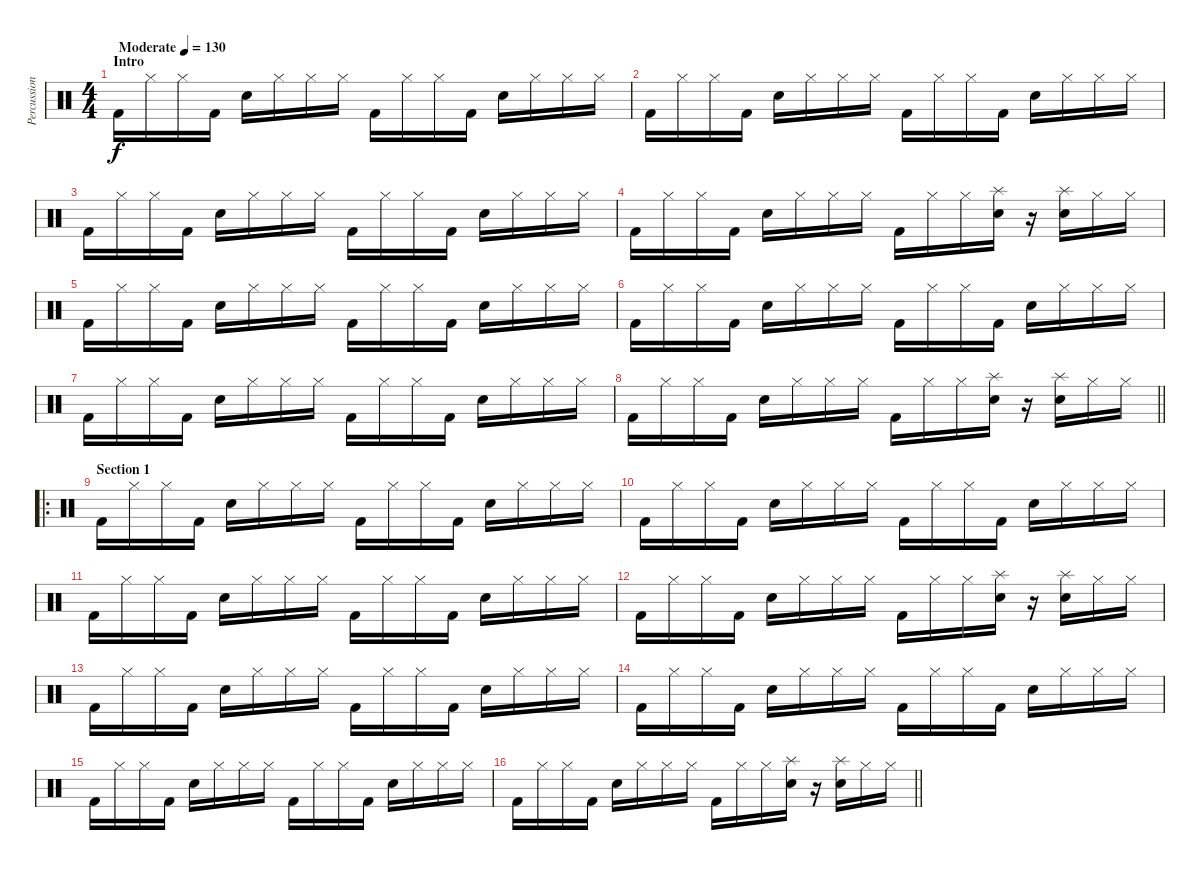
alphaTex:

\track ("Percussion" "Percussion") {instrument percussion}
\staff {score}
\articulation defaults
\ts (4 4)
\section ("" "Intro")
\tempo (130 "Moderate")
\clef neutral
\ks c "Kick (hit) 2".16{dy f} "Hi-Hat (closed)".16 "Hi-Hat (closed)".16 "Kick (hit) 2".16 "Snare (hit) 2".16 "Hi-Hat (closed)".16 "Hi-Hat (closed)".16 "Hi-Hat (closed)".16 "Kick (hit) 2".16 "Hi-Hat (closed)".16 "Hi-Hat (closed)".16 "Kick (hit) 2".16 "Snare (hit) 2".16 "Hi-Hat (closed)".16 "Hi-Hat (closed)".16 "Hi-Hat (closed)".16
|
"Kick (hit) 2".16 "Hi-Hat (closed)".16 "Hi-Hat (closed)".16 "Kick (hit) 2".16 "Snare (hit) 2".16 "Hi-Hat (closed)".16 "Hi-Hat (closed)".16 "Hi-Hat (closed)".16 "Kick (hit) 2".16 "Hi-Hat (closed)".16 "Hi-Hat (closed)".16 "Kick (hit) 2".16 "Snare (hit) 2".16 "Hi-Hat (closed)".16 "Hi-Hat (closed)".16 "Hi-Hat (closed)".16 |
"Kick (hit) 2".16 "Hi-Hat (closed)".16 "Hi-Hat (closed)".16 "Kick (hit) 2".16 "Snare (hit) 2".16 "Hi-Hat (closed)".16 "Hi-Hat (closed)".16 "Hi-Hat (closed)".16 "Kick (hit) 2".16 "Hi-Hat (closed)".16 "Hi-Hat (closed)".16 "Kick (hit) 2".16 "Snare (hit) 2".16 "Hi-Hat (closed)".16 "Hi-Hat (closed)".16 "Hi-Hat (closed)".16 |
"Kick (hit) 2".16 "Hi-Hat (closed)".16 "Hi-Hat (closed)".16 "Kick (hit) 2".16 "Snare (hit) 2".16 "Hi-Hat (closed)".16 "Hi-Hat (closed)".16 "Hi-Hat (closed)".16 "Kick (hit) 2".16 "Hi-Hat (closed)".16 "Hi-Hat (closed)".16 ("Splash (hit)" "Snare (hit) 2").16 r.16 ("Splash (hit)" "Snare (hit) 2").16 "Hi-Hat (closed)".16 "Hi-Hat (closed)".16 |
"Kick (hit) 2".16 "Hi-Hat (closed)".16 "Hi-Hat (closed)".16 "Kick (hit) 2".16 "Snare (hit) 2".16 "Hi-Hat (closed)".16 "Hi-Hat (closed)".16 "Hi-Hat (closed)".16 "Kick (hit) 2".16 "Hi-Hat (closed)".16 "Hi-Hat (closed)".16 "Kick (hit) 2".16 "Snare (hit) 2".16 "Hi-Hat (closed)".16 "Hi-Hat (closed)".16 "Hi-Hat (closed)".16 |
"Kick (hit) 2".16 "Hi-Hat (closed)".16 "Hi-Hat (closed)".16 "Kick (hit) 2".16 "Snare (hit) 2".16 "Hi-Hat (closed)".16 "Hi-Hat (closed)".16 "Hi-Hat (closed)".16 "Kick (hit) 2".16 "Hi-Hat (closed)".16 "Hi-Hat (closed)".16 "Kick (hit) 2".16 "Snare (hit) 2".16 "Hi-Hat (closed)".16 "Hi-Hat (closed)".16 "Hi-Hat (closed)".16 |
"Kick (hit) 2".16 "Hi-Hat (closed)".16 "Hi-Hat (closed)".16 "Kick (hit) 2".16 "Snare (hit) 2".16 "Hi-Hat (closed)".16 "Hi-Hat (closed)".16 "Hi-Hat (closed)".16 "Kick (hit) 2".16 "Hi-Hat (closed)".16 "Hi-Hat (closed)".16 "Kick (hit) 2".16 "Snare (hit) 2".16 "Hi-Hat (closed)".16 "Hi-Hat (closed)".16 "Hi-Hat (closed)".16 |
\barLineRight lightlight "Kick (hit) 2".16 "Hi-Hat (closed)".16 "Hi-Hat (closed)".16 "Kick (hit) 2".16 "Snare (hit) 2".16 "Hi-Hat (closed)".16 "Hi-Hat (closed)".16 "Hi-Hat (closed)".16 "Kick (hit) 2".16 "Hi-Hat (closed)".16 "Hi-Hat (closed)".16
("Splash (hit)" "Snare (hit) 2").16 r.16 ("Splash (hit)" "Snare (hit) 2").16 "Hi-Hat (closed)".16 "Hi-Hat (closed)".16 |
\ro
\section ("" "Section 1")
"Kick (hit) 2".16 "Hi-Hat (closed)".16 "Hi-Hat (closed)".16 "Kick (hit) 2".16 "Snare (hit) 2".16 "Hi-Hat (closed)".16 "Hi-Hat (closed)".16 "Hi-Hat (closed)".16 "Kick (hit) 2".16 "Hi-Hat (closed)".16 "Hi-Hat (closed)".16 "Kick (hit) 2".16 "Snare (hit) 2".16 "Hi-Hat (closed)".16 "Hi-Hat (closed)".16 "Hi-Hat (closed)".16 |
"Kick (hit) 2".16 "Hi-Hat (closed)".16 "Hi-Hat (closed)".16 "Kick (hit) 2".16 "Snare (hit) 2".16 "Hi-Hat (closed)".16 "Hi-Hat (closed)".16 "Hi-Hat (closed)".16 "Kick (hit) 2".16 "Hi-Hat (closed)".16 "Hi-Hat (closed)".16 "Kick (hit) 2".16 "Snare (hit) 2".16 "Hi-Hat (closed)".16 "Hi-Hat (closed)".16 "Hi-Hat (closed)".16 |
"Kick (hit) 2".16 "Hi-Hat (closed)".16 "Hi-Hat (closed)".16 "Kick (hit) 2".16 "Snare (hit) 2".16 "Hi-Hat (closed)".16 "Hi-Hat (closed)".16 "Hi-Hat (closed)".16 "Kick (hit) 2".16 "Hi-Hat (closed)".16 "Hi-Hat (closed)".16 "Kick (hit) 2".16 "Snare (hit) 2".16 "Hi-Hat (closed)".16 "Hi-Hat (closed)".16 "Hi-Hat (closed)".16 |
"Kick (hit) 2".16 "Hi-Hat (closed)".16 "Hi-Hat (closed)".16 "Kick (hit) 2".16 "Snare (hit) 2".16 "Hi-Hat (closed)".16 "Hi-Hat (closed)".16 "Hi-Hat (closed)".16 "Kick (hit) 2".16 "Hi-Hat (closed)".16 "Hi-Hat (closed)".16 ("Splash (hit)" "Snare (hit) 2").16 r.16 ("Splash (hit)" "Snare (hit) 2").16 "Hi-Hat (closed)".16 "Hi-Hat (closed)".16 |
"Kick (hit) 2".16 "Hi-Hat (closed)".16 "Hi-Hat (closed)".16 "Kick (hit) 2".16 "Snare (hit) 2".16 "Hi-Hat (closed)".16 "Hi-Hat (closed)".16 "Hi-Hat (closed)".16 "Kick (hit) 2".16 "Hi-Hat (closed)".16 "Hi-Hat (closed)".16 "Kick (hit) 2".16 "Snare (hit) 2".16 "Hi-Hat (closed)".16 "Hi-Hat (closed)".16 "Hi-Hat (closed)".16 |
"Kick (hit) 2".16 "Hi-Hat (closed)".16 "Hi-Hat (closed)".16 "Kick (hit) 2".16 "Snare (hit) 2".16 "Hi-Hat (closed)".16 "Hi-Hat (closed)".16 "Hi-Hat (closed)".16 "Kick (hit) 2".16 "Hi-Hat (closed)".16 "Hi-Hat (closed)".16 "Kick (hit) 2".16 "Snare (hit) 2".16 "Hi-Hat (closed)".16 "Hi-Hat (closed)".16 "Hi-Hat (closed)".16 |
"Kick (hit) 2".16 "Hi-Hat (closed)".16 "Hi-Hat (closed)".16 "Kick (hit) 2".16 "Snare (hit) 2".16 "Hi-Hat (closed)".16 "Hi-Hat (closed)".16 "Hi-Hat (closed)".16 "Kick (hit) 2".16 "Hi-Hat (closed)".16 "Hi-Hat (closed)".16 "Kick (hit) 2".16 "Snare (hit) 2".16 "Hi-Hat (closed)".16 "Hi-Hat (closed)".16 "Hi-Hat (closed)".16 |
\barLineRight lightlight "Kick (hit) 2".16 "Hi-Hat (closed)".16 "Hi-Hat (closed)".16 "Kick (hit) 2".16 "Snare (hit) 2".16 "Hi-Hat (closed)".16 "Hi-Hat (closed)".16 "Hi-Hat (closed)".16 "Kick (hit) 2".16 "Hi-Hat (closed)".16 "Hi-Hat (closed)".16
("Splash (hit)" "Snare (hit) 2").16 r.16 ("Splash (hit)" "Snare (hit) 2").16 "Hi-Hat (closed)".16 "Hi-Hat (closed)".16
